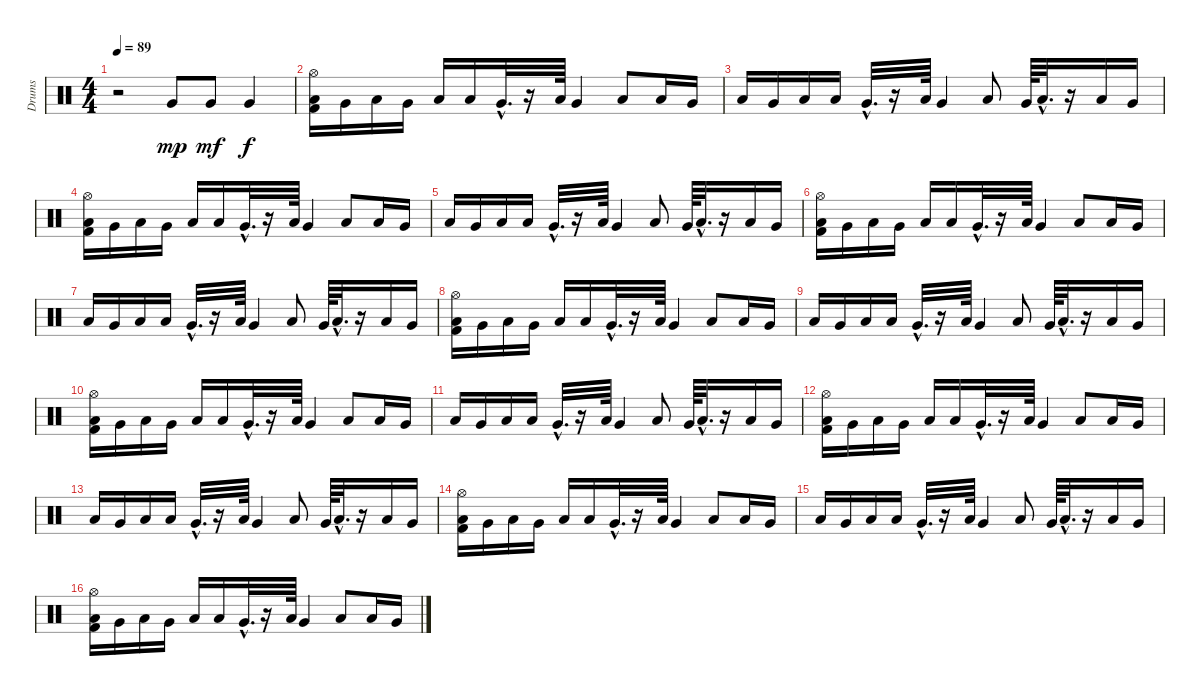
\track ("Drums" "Drums") {instrument percussion}
\staff {score}
\articulation defaults
\ts (4 4)
\tempo 89
\clef neutral
\ks c
r.2{dy mp volume 10} "Very Low Tom (hit)".8 "Very Low Tom (hit)".8{dy mf} "Very Low Tom (hit)".4{dy f} |
("Hi-Hat (open)" "Low Floor Tom (hit)" "Kick (hit) 2").16 "Very Low Tom (hit)".16 "Low Floor Tom (hit)".16 "Very Low Tom (hit)".16 "Low Floor Tom (hit)".16 "Low Tom (hit)".16 "Very Low Tom (hit)"{hac}.32{d} r.16 "Low Floor Tom (hit)".64 "Very Low Tom (hit)".4 "Low Floor Tom (hit)".8 "Low Floor Tom (hit)".16 "Very Low Tom (hit)".16 |
"Low Floor Tom (hit)".16 "Very Low Tom (hit)".16 "Low Floor Tom (hit)".16 "Low Tom (hit)".16 "Very Low Tom (hit)"{hac}.32{d} r.16 "Low Floor Tom (hit)".64 "Very Low Tom (hit)".4 "Low Floor Tom (hit)".8 "Very Low Tom (hit)".64 "Low Floor Tom (hit)"{hac}.32{d} r.16 "Low Floor Tom (hit)".16 "Very Low Tom (hit)".16 |
("Hi-Hat (open)" "Low Floor Tom (hit)" "Kick (hit) 2").16 "Very Low Tom (hit)".16 "Low Floor Tom (hit)".16 "Very Low Tom (hit)".16 "Low Floor Tom (hit)".16 "Low Tom (hit)".16 "Very Low Tom (hit)"{hac}.32{d} r.16 "Low Floor Tom (hit)".64 "Very Low Tom (hit)".4 "Low Floor Tom (hit)".8 "Low Floor Tom (hit)".16 "Very Low Tom (hit)".16 |
"Low Floor Tom (hit)".16 "Very Low Tom (hit)".16 "Low Floor Tom (hit)".16 "Low Tom (hit)".16 "Very Low Tom (hit)"{hac}.32{d} r.16 "Low Floor Tom (hit)".64 "Very Low Tom (hit)".4 "Low Floor Tom (hit)".8 "Very Low Tom (hit)".64 "Low Floor Tom (hit)"{hac}.32{d} r.16 "Low Floor Tom (hit)".16 "Very Low Tom (hit)".16 |
("Hi-Hat (open)" "Low Floor Tom (hit)" "Kick (hit) 2").16 "Very Low Tom (hit)".16 "Low Floor Tom (hit)".16 "Very Low Tom (hit)".16 "Low Floor Tom (hit)".16 "Low Tom (hit)".16 "Very Low Tom (hit)"{hac}.32{d} r.16 "Low Floor Tom (hit)".64 "Very Low Tom (hit)".4 "Low Floor Tom (hit)".8 "Low Floor Tom (hit)".16 "Very Low Tom (hit)".16 |
"Low Floor Tom (hit)".16 "Very Low Tom (hit)".16 "Low Floor Tom (hit)".16 "Low Tom (hit)".16 "Very Low Tom (hit)"{hac}.32{d} r.16 "Low Floor Tom (hit)".64 "Very Low Tom (hit)".4 "Low Floor Tom (hit)".8 "Very Low Tom (hit)".64 "Low Floor Tom (hit)"{hac}.32{d} r.16 "Low Floor Tom (hit)".16 "Very Low Tom (hit)".16 |
("Hi-Hat (open)" "Low Floor Tom (hit)" "Kick (hit) 2").16 "Very Low Tom (hit)".16 "Low Floor Tom (hit)".16 "Very Low Tom (hit)".16 "Low Floor Tom (hit)".16 "Low Tom (hit)".16 "Very Low Tom (hit)"{hac}.32{d} r.16 "Low Floor Tom (hit)".64 "Very Low Tom (hit)".4 "Low Floor Tom (hit)".8 "Low Floor Tom (hit)".16 "Very Low Tom (hit)".16 |
"Low Floor Tom (hit)".16 "Very Low Tom (hit)".16 "Low Floor Tom (hit)".16 "Low Tom (hit)".16 "Very Low Tom (hit)"{hac}.32{d} r.16 "Low Floor Tom (hit)".64 "Very Low Tom (hit)".4 "Low Floor Tom (hit)".8 "Very Low Tom (hit)".64 "Low Floor Tom (hit)"{hac}.32{d} r.16 "Low Floor Tom (hit)".16 "Very Low Tom (hit)".16 |
("Hi-Hat (open)" "Low Floor Tom (hit)" "Kick (hit) 2").16 "Very Low Tom (hit)".16 "Low Floor Tom (hit)".16 "Very Low Tom (hit)".16 "Low Floor Tom (hit)".16 "Low Tom (hit)".16 "Very Low Tom (hit)"{hac}.32{d} r.16 "Low Floor Tom (hit)".64 "Very Low Tom (hit)".4 "Low Floor Tom (hit)".8 "Low Floor Tom (hit)".16 "Very Low Tom (hit)".16 |
"Low Floor Tom (hit)".16 "Very Low Tom (hit)".16 "Low Floor Tom (hit)".16 "Low Tom (hit)".16 "Very Low Tom (hit)"{hac}.32{d} r.16 "Low Floor Tom (hit)".64 "Very Low Tom (hit)".4 "Low Floor Tom (hit)".8 "Very Low Tom (hit)".64 "Low Floor Tom (hit)"{hac}.32{d} r.16 "Low Floor Tom (hit)".16 "Very Low Tom (hit)".16 |
("Hi-Hat (open)" "Low Floor Tom (hit)" "Kick (hit) 2").16 "Very Low Tom (hit)".16 "Low Floor Tom (hit)".16 "Very Low Tom (hit)".16 "Low Floor Tom (hit)".16 "Low Tom (hit)".16 "Very Low Tom (hit)"{hac}.32{d} r.16 "Low Floor Tom (hit)".64 "Very Low Tom (hit)".4 "Low Floor Tom (hit)".8 "Low Floor Tom (hit)".16 "Very Low Tom (hit)".16 |
"Low Floor Tom (hit)".16 "Very Low Tom (hit)".16 "Low Floor Tom (hit)".16 "Low Tom (hit)".16 "Very Low Tom (hit)"{hac}.32{d} r.16 "Low Floor Tom (hit)".64 "Very Low Tom (hit)".4 "Low Floor Tom (hit)".8 "Very Low Tom (hit)".64 "Low Floor Tom (hit)"{hac}.32{d} r.16 "Low Floor Tom (hit)".16 "Very Low Tom (hit)".16 |
("Hi-Hat (open)" "Low Floor Tom (hit)" "Kick (hit) 2").16 "Very Low Tom (hit)".16 "Low Floor Tom (hit)".16 "Very Low Tom (hit)".16 "Low Floor Tom (hit)".16 "Low Tom (hit)".16 "Very Low Tom (hit)"{hac}.32{d} r.16 "Low Floor Tom (hit)".64 "Very Low Tom (hit)".4 "Low Floor Tom (hit)".8 "Low Floor Tom (hit)".16 "Very Low Tom (hit)".16 |
"Low Floor Tom (hit)".16 "Very Low Tom (hit)".16 "Low Floor Tom (hit)".16 "Low Tom (hit)".16 "Very Low Tom (hit)"{hac}.32{d} r.16 "Low Floor Tom (hit)".64 "Very Low Tom (hit)".4 "Low Floor Tom (hit)".8 "Very Low Tom (hit)".64 "Low Floor Tom (hit)"{hac}.32{d} r.16 "Low Floor Tom (hit)".16 "Very Low Tom (hit)".16 |
("Hi-Hat (open)" "Low Floor Tom (hit)" "Kick (hit) 2").16 "Very Low Tom (hit)".16 "Low Floor Tom (hit)".16 "Very Low Tom (hit)".16 "Low Floor Tom (hit)".16 "Low Tom (hit)".16 "Very Low Tom (hit)"{hac}.32{d} r.16 "Low Floor Tom (hit)".64 "Very Low Tom (hit)".4 "Low Floor Tom (hit)".8 "Low Floor Tom (hit)".16 "Very Low Tom (hit)".16
